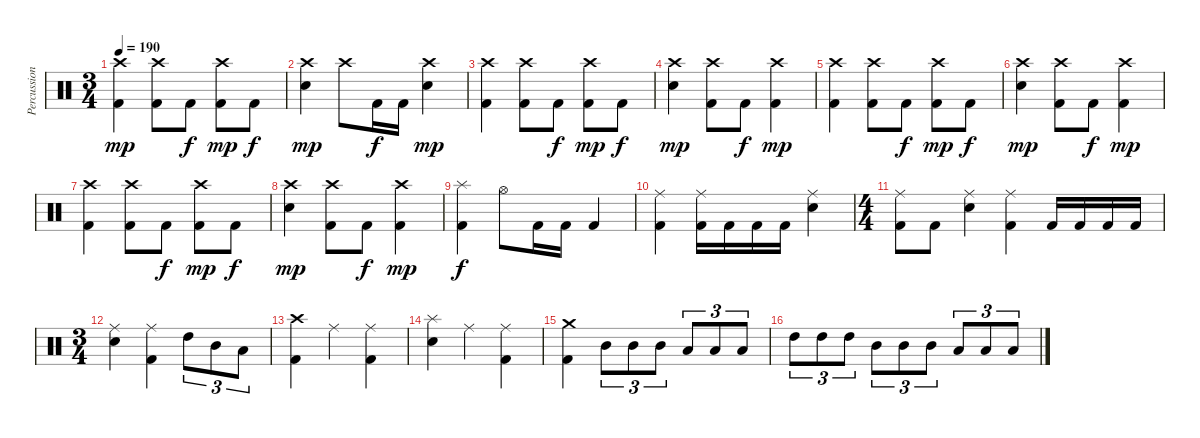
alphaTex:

\track ("Percussion" "Percussion") {instrument percussion}
\staff {score}
\articulation defaults
\ts (3 4)
\tempo 190
\clef neutral
\ks c
("Crash high (hit)" "Kick (hit) 2").4{dy mp} ("Crash high (hit)" "Kick (hit) 2").8 "Kick (hit) 2".8{dy f} ("Crash high (hit)" "Kick (hit) 2").8{dy mp} "Kick (hit) 2".8{dy f} |
("Crash high (hit)" "Electric Snare (hit)").4{dy mp} "Crash high (hit)".8 "Kick (hit) 2".16{dy f} "Kick (hit) 2".16 ("Crash high (hit)" "Electric Snare (hit)").4{dy mp} |
("Crash high (hit)" "Kick (hit) 2").4 ("Crash high (hit)" "Kick (hit) 2").8 "Kick (hit) 2".8{dy f} ("Crash high (hit)" "Kick (hit) 2").8{dy mp} "Kick (hit) 2".8{dy f} |
("Crash high (hit)" "Electric Snare (hit)").4{dy mp} ("Crash high (hit)" "Kick (hit) 2").8 "Kick (hit) 2".8{dy f} ("Crash high (hit)" "Kick (hit) 2").4{dy mp} |
("Crash high (hit)" "Kick (hit) 2").4 ("Crash high (hit)" "Kick (hit) 2").8 "Kick (hit) 2".8{dy f} ("Crash high (hit)" "Kick (hit) 2").8{dy mp} "Kick (hit) 2".8{dy f} |
("Crash high (hit)" "Electric Snare (hit)").4{dy mp} ("Crash high (hit)" "Kick (hit) 2").8 "Kick (hit) 2".8{dy f} ("Crash high (hit)" "Kick (hit) 2").4{dy mp} |
("Crash high (hit)" "Kick (hit) 2").4 ("Crash high (hit)" "Kick (hit) 2").8 "Kick (hit) 2".8{dy f} ("Crash high (hit)" "Kick (hit) 2").8{dy mp} "Kick (hit) 2".8{dy f} |
("Crash high (hit)" "Electric Snare (hit)").4{dy mp} ("Crash high (hit)" "Kick (hit) 2").8 "Kick (hit) 2".8{dy f} ("Crash high (hit)" "Kick (hit) 2").4{dy mp} |
("Splash (hit)" "Kick (hit) 2").4{dy f} "Hi-Hat (open)".8 "Kick (hit) 2".16 "Kick (hit) 2".16 "Kick (hit) 2".4 |
("Ride (middle)" "Kick (hit) 2").4 ("Ride (middle)" "Kick (hit) 2").16 "Kick (hit) 2".16 "Kick (hit) 2".16 "Kick (hit) 2".16 ("Ride (middle)" "Electric Snare (hit)").4 |
\ts (4 4)
("Ride (middle)" "Kick (hit) 2").8 "Kick (hit) 2".8 ("Ride (middle)" "Electric Snare (hit)").4 ("Ride (middle)" "Kick (hit) 2").4 "Kick (hit) 2".16 "Kick (hit) 2".16 "Kick (hit) 2".16 "Kick (hit) 2".16 |
\ts (3 4)
("Ride (middle)" "Electric Snare (hit)").4 ("Ride (middle)" "Kick (hit) 2").4 "High Tom (hit)".8{tu (3 2)} "Mid Tom (hit)".8{tu (3 2)} "Low Tom (hit)".8{tu (3 2)} |
("Crash high (hit)" "Kick (hit) 2").4 "Ride (middle)".4 ("Ride (middle)" "Kick (hit) 2").4 |
("Splash (hit)" "Electric Snare (hit)").4 "Ride (middle)".4 ("Ride (middle)" "Kick (hit) 2").4 |
("Crash medium (hit)" "Kick (hit) 2").4 "Mid Tom (hit)".8{tu (3 2)} "Mid Tom (hit)".8{tu (3 2)} "Mid Tom (hit)".8{tu (3 2)} "Low Tom (hit)".8{tu (3 2)} "Low Tom (hit)".8{tu (3 2)} "Low Tom (hit)".8{tu (3 2)} |
"High Tom (hit)".8{tu (3 2)} "High Tom (hit)".8{tu (3 2)} "High Tom (hit)".8{tu (3 2)} "Mid Tom (hit)".8{tu (3 2)} "Mid Tom (hit)".8{tu (3 2)} "Mid Tom (hit)".8{tu (3 2)} "Low Tom (hit)".8{tu (3 2)} "Low Tom (hit)".8{tu (3 2)} "Low Tom (hit)".8{tu (3 2)}
